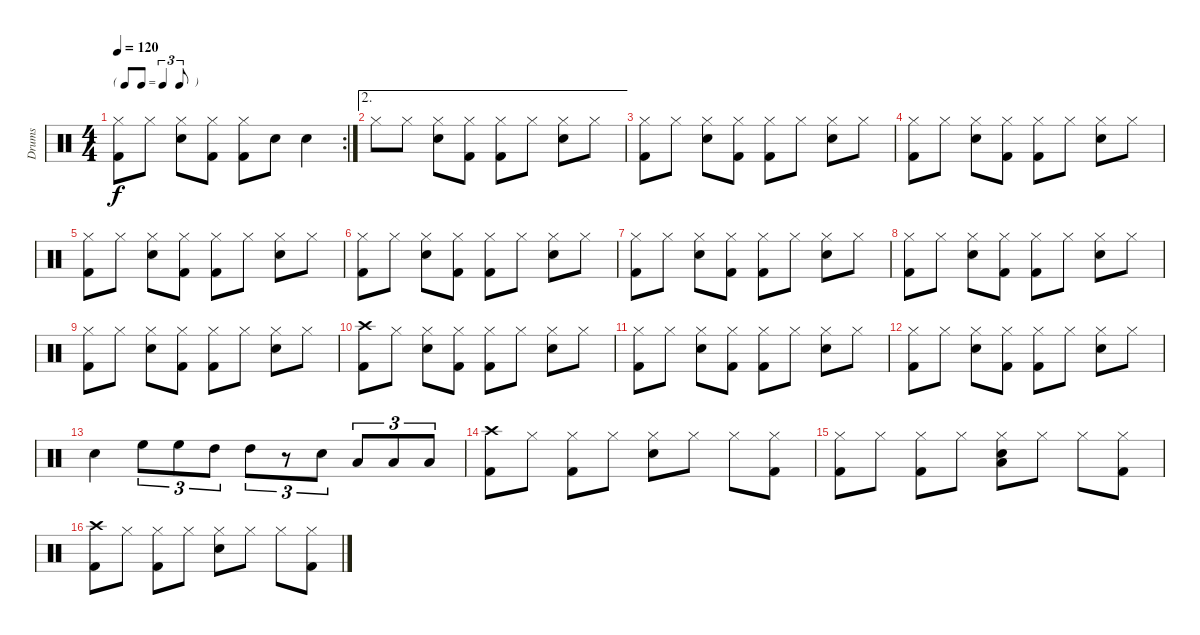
\track ("Drums" "Drums") {instrument percussion}
\staff {score}
\articulation defaults
\rc 2
\ts (4 4)
\tf triplet8th
\tempo 120
\clef neutral
\ks c
("Kick (hit) 2" "Hi-Hat (closed)").8{dy f} "Hi-Hat (closed)".8 ("Snare (hit) 2" "Hi-Hat (closed)").8 ("Kick (hit) 2" "Hi-Hat (closed)").8 ("Kick (hit) 2" "Hi-Hat (closed)").8 "Snare (hit) 2".8 "Snare (hit) 2".4 |
\ae 2 "Hi-Hat (closed)".8 "Hi-Hat (closed)".8
("Snare (hit) 2" "Hi-Hat (closed)").8 ("Kick (hit) 2" "Hi-Hat (closed)").8 ("Kick (hit) 2" "Hi-Hat (closed)").8 "Hi-Hat (closed)".8 ("Snare (hit) 2" "Hi-Hat (closed)").8 "Hi-Hat (closed)".8 |
("Kick (hit) 2" "Hi-Hat (closed)").8 "Hi-Hat (closed)".8 ("Snare (hit) 2" "Hi-Hat (closed)").8 ("Kick (hit) 2" "Hi-Hat (closed)").8 ("Kick (hit) 2" "Hi-Hat (closed)").8 "Hi-Hat (closed)".8 ("Snare (hit) 2" "Hi-Hat (closed)").8 "Hi-Hat (closed)".8 |
("Kick (hit) 2" "Hi-Hat (closed)").8 "Hi-Hat (closed)".8 ("Snare (hit) 2" "Hi-Hat (closed)").8 ("Kick (hit) 2" "Hi-Hat (closed)").8 ("Kick (hit) 2" "Hi-Hat (closed)").8 "Hi-Hat (closed)".8 ("Snare (hit) 2" "Hi-Hat (closed)").8 "Hi-Hat (closed)".8 |
("Kick (hit) 2" "Hi-Hat (closed)").8 "Hi-Hat (closed)".8 ("Snare (hit) 2" "Hi-Hat (closed)").8 ("Kick (hit) 2" "Hi-Hat (closed)").8 ("Kick (hit) 2" "Hi-Hat (closed)").8 "Hi-Hat (closed)".8 ("Snare (hit) 2" "Hi-Hat (closed)").8 "Hi-Hat (closed)".8 |
("Kick (hit) 2" "Hi-Hat (closed)").8 "Hi-Hat (closed)".8 ("Snare (hit) 2" "Hi-Hat (closed)").8 ("Kick (hit) 2" "Hi-Hat (closed)").8 ("Kick (hit) 2" "Hi-Hat (closed)").8 "Hi-Hat (closed)".8 ("Snare (hit) 2" "Hi-Hat (closed)").8 "Hi-Hat (closed)".8 |
("Kick (hit) 2" "Hi-Hat (closed)").8 "Hi-Hat (closed)".8 ("Snare (hit) 2" "Hi-Hat (closed)").8 ("Kick (hit) 2" "Hi-Hat (closed)").8 ("Kick (hit) 2" "Hi-Hat (closed)").8 "Hi-Hat (closed)".8 ("Snare (hit) 2" "Hi-Hat (closed)").8 "Hi-Hat (closed)".8 |
("Kick (hit) 2" "Hi-Hat (closed)").8 "Hi-Hat (closed)".8 ("Snare (hit) 2" "Hi-Hat (closed)").8 ("Kick (hit) 2" "Hi-Hat (closed)").8 ("Kick (hit) 2" "Hi-Hat (closed)").8 "Hi-Hat (closed)".8 ("Snare (hit) 2" "Hi-Hat (closed)").8 "Hi-Hat (closed)".8 |
("Kick (hit) 2" "Hi-Hat (closed)").8 "Hi-Hat (closed)".8 ("Snare (hit) 2" "Hi-Hat (closed)").8 ("Kick (hit) 2" "Hi-Hat (closed)").8 ("Kick (hit) 2" "Hi-Hat (closed)").8 "Hi-Hat (closed)".8 ("Snare (hit) 2" "Hi-Hat (closed)").8 "Hi-Hat (closed)".8 |
("Kick (hit) 2" "Crash high (hit)").8 "Hi-Hat (closed)".8 ("Snare (hit) 2" "Hi-Hat (closed)").8 ("Kick (hit) 2" "Hi-Hat (closed)").8 ("Kick (hit) 2" "Hi-Hat (closed)").8 "Hi-Hat (closed)".8 ("Snare (hit) 2" "Hi-Hat (closed)").8 "Hi-Hat (closed)".8 |
("Kick (hit) 2" "Hi-Hat (closed)").8 "Hi-Hat (closed)".8 ("Snare (hit) 2" "Hi-Hat (closed)").8 ("Kick (hit) 2" "Hi-Hat (closed)").8 ("Kick (hit) 2" "Hi-Hat (closed)").8 "Hi-Hat (closed)".8 ("Snare (hit) 2" "Hi-Hat (closed)").8 "Hi-Hat (closed)".8 |
("Kick (hit) 2" "Hi-Hat (closed)").8 "Hi-Hat (closed)".8 ("Snare (hit) 2" "Hi-Hat (closed)").8 ("Kick (hit) 2" "Hi-Hat (closed)").8 ("Kick (hit) 2" "Hi-Hat (closed)").8 "Hi-Hat (closed)".8 ("Snare (hit) 2" "Hi-Hat (closed)").8 "Hi-Hat (closed)".8 |
"Snare (hit) 2".4 "High Floor Tom (hit)".8{tu (3 2)} "High Floor Tom (hit)".8{tu (3 2)} "High Tom (hit)".8{tu (3 2)} "High Tom (hit)".8{tu (3 2)} r.8{tu (3 2)} "Snare (hit) 2".8{tu (3 2)} "Low Tom (hit)".8{tu (3 2)} "Low Tom (hit)".8{tu (3 2)} "Low Tom (hit)".8{tu (3 2)} |
("Kick (hit) 2" "Crash high (hit)").8 "Hi-Hat (closed)".8 ("Kick (hit) 2" "Hi-Hat (closed)").8 "Hi-Hat (closed)".8 ("Snare (hit) 2" "Hi-Hat (closed)").8 "Hi-Hat (closed)".8 "Hi-Hat (closed)".8 ("Kick (hit) 2" "Hi-Hat (closed)").8 |
("Kick (hit) 2" "Hi-Hat (closed)").8 "Hi-Hat (closed)".8 ("Kick (hit) 2" "Hi-Hat (closed)").8 "Hi-Hat (closed)".8 ("Snare (hit) 2" "Hi-Hat (closed)" "Low Tom (hit)").8 "Hi-Hat (closed)".8 "Hi-Hat (closed)".8 ("Kick (hit) 2" "Hi-Hat (closed)").8 |
("Kick (hit) 2" "Crash high (hit)").8 "Hi-Hat (closed)".8 ("Kick (hit) 2" "Hi-Hat (closed)").8 "Hi-Hat (closed)".8 ("Snare (hit) 2" "Hi-Hat (closed)").8 "Hi-Hat (closed)".8 "Hi-Hat (closed)".8 ("Kick (hit) 2" "Hi-Hat (closed)").8
